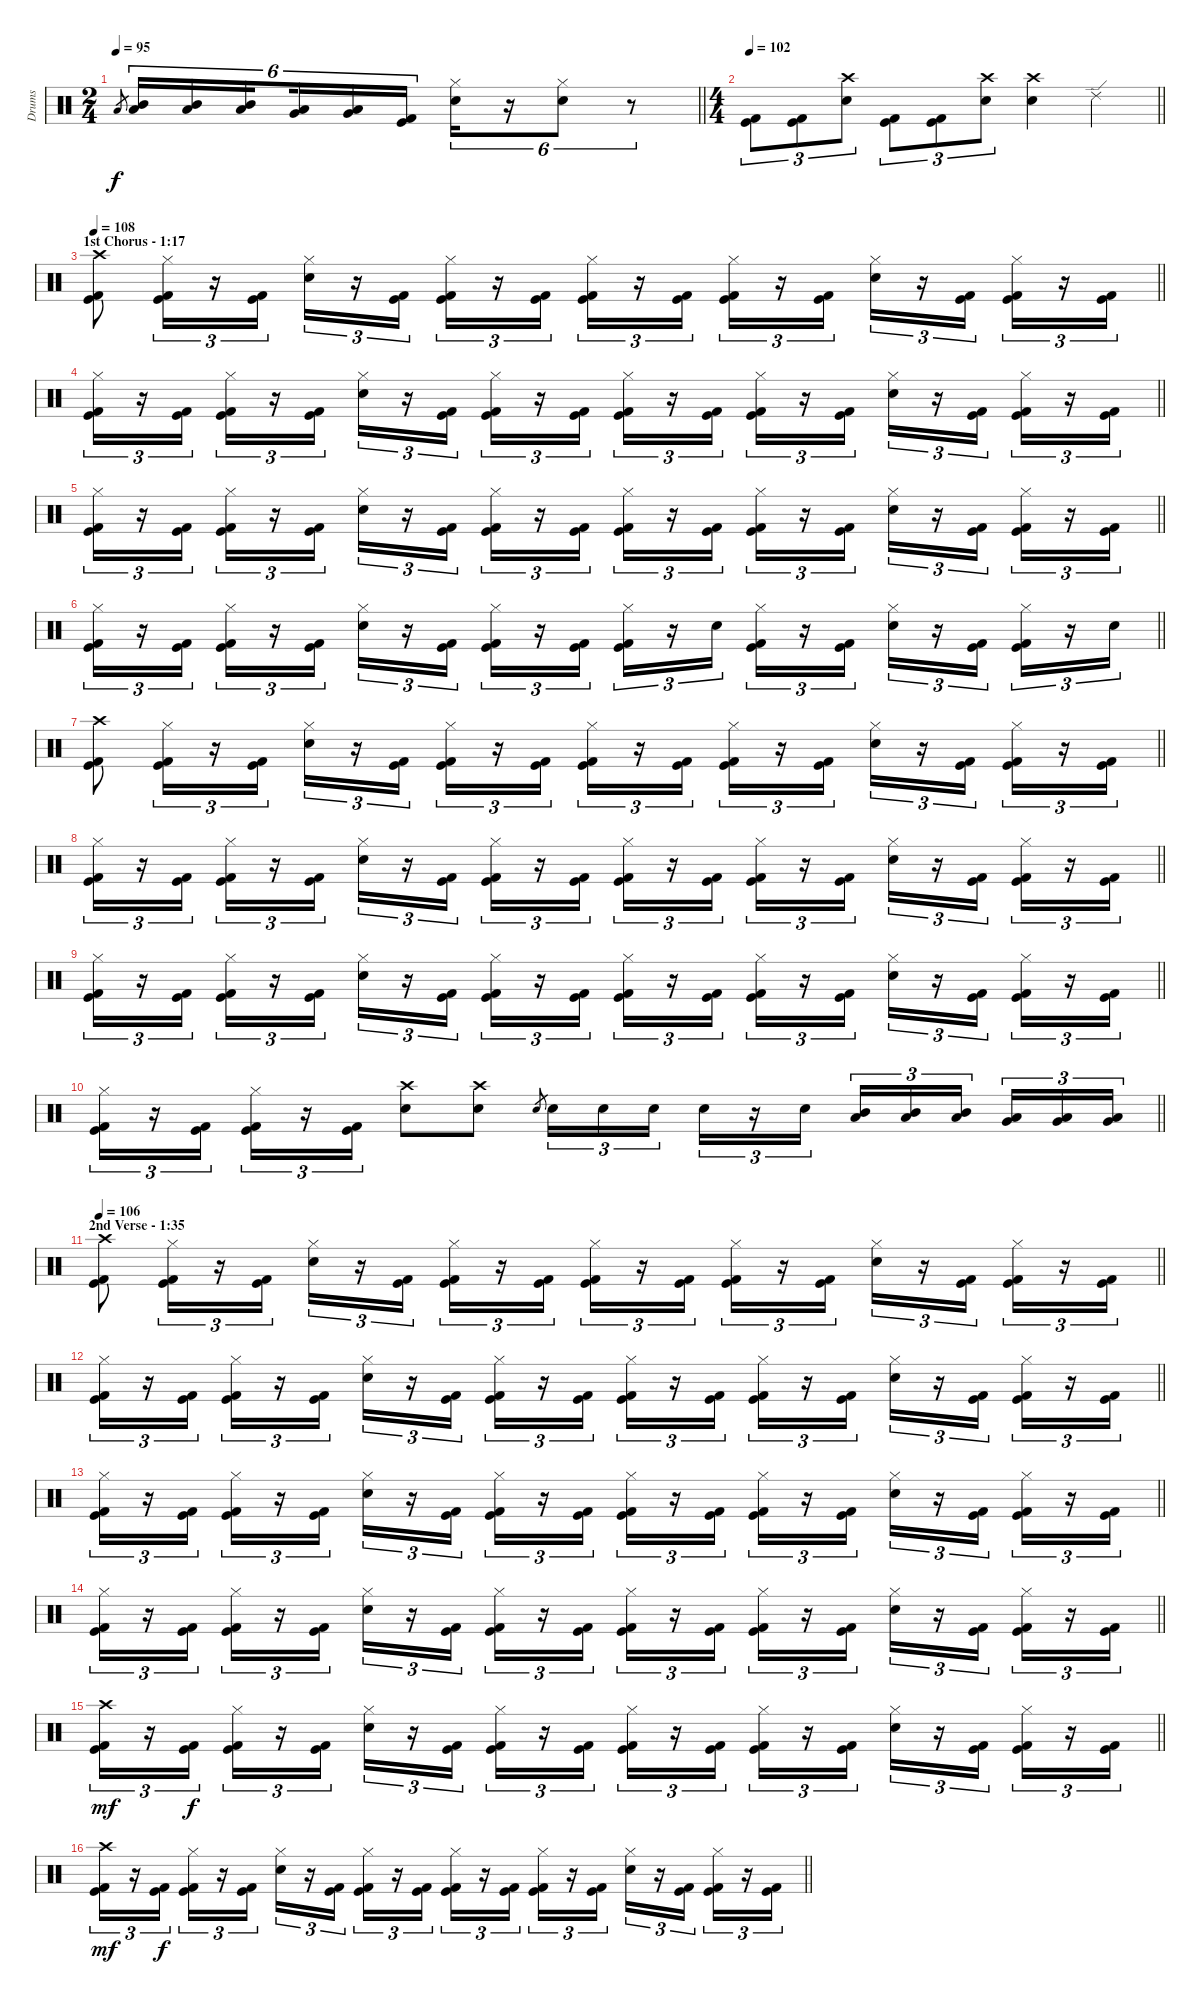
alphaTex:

\track ("Drums" "Drums") {instrument percussion}
\staff {score}
\articulation defaults
\ts (2 4)
\tempo 95
\clef neutral
\barLineRight lightlight
\ks c "Low Tom (hit)".8{gr dy f}
("Mid Tom (hit)" "Low Tom (hit)").16{tu (6 4)} ("Mid Tom (hit)" "Low Tom (hit)").16{tu (6 4)} ("Mid Tom (hit)" "Low Tom (hit)").16{tu (6 4) beam splitsecondary} ("Very Low Tom (hit)" "Low Tom (hit)").16{tu (6 4)} ("Very Low Tom (hit)" "Low Tom (hit)").16{tu (6 4)} ("Kick (hit)" "Kick (hit) 2").16{tu (6 4)} ("Hi-Hat (closed)" "Electric Snare (hit)").16{tu (6 4)} r.16{tu (6 4)} ("Hi-Hat (closed)" "Electric Snare (hit)").8{tu (6 4)} r.8{tu (6 4)} |
\ts (4 4)
\tempo 102
\barLineRight lightlight
("Kick (hit)" "Kick (hit) 2").8{tu (3 2)} ("Kick (hit)" "Kick (hit) 2").8{tu (3 2)} ("Crash high (hit)" "Electric Snare (hit)").8{tu (3 2)} ("Kick (hit)" "Kick (hit) 2").8{tu (3 2)} ("Kick (hit)" "Kick (hit) 2").8{tu (3 2)} ("Crash high (hit)" "Electric Snare (hit)").8{tu (3 2)} ("Crash high (hit)" "Electric Snare (hit)").4 "Ride (edge) 2".4 |
\section ("" "1st Chorus - 1:17")
\tempo 108
\barLineRight lightlight
("Crash high (hit)" "Kick (hit)" "Kick (hit) 2").8 ("Hi-Hat (closed)" "Kick (hit)" "Kick (hit) 2").16{tu (3 2)} r.16{tu (3 2)} ("Kick (hit)" "Kick (hit) 2").16{tu (3 2)} ("Hi-Hat (closed)" "Electric Snare (hit)").16{tu (3 2)} r.16{tu (3 2)} ("Kick (hit)" "Kick (hit) 2").16{tu (3 2)} ("Hi-Hat (closed)" "Kick (hit)" "Kick (hit) 2").16{tu (3 2)} r.16{tu (3 2)} ("Kick (hit)" "Kick (hit) 2").16{tu (3 2)} ("Hi-Hat (closed)" "Kick (hit)" "Kick (hit) 2").16{tu (3 2)} r.16{tu (3 2)} ("Kick (hit)" "Kick (hit) 2").16{tu (3 2)} ("Hi-Hat (closed)" "Kick (hit)" "Kick (hit) 2").16{tu (3 2)} r.16{tu (3 2)} ("Kick (hit)" "Kick (hit) 2").16{tu (3 2)} ("Hi-Hat (closed)" "Electric Snare (hit)").16{tu (3 2)} r.16{tu (3 2)} ("Kick (hit)" "Kick (hit) 2").16{tu (3 2)} ("Hi-Hat (closed)" "Kick (hit)" "Kick (hit) 2").16{tu (3 2)} r.16{tu (3 2)} ("Kick (hit)" "Kick (hit) 2").16{tu (3 2)} |
\barLineRight lightlight
("Hi-Hat (closed)" "Kick (hit)" "Kick (hit) 2").16{tu (3 2)} r.16{tu (3 2)} ("Kick (hit)" "Kick (hit) 2").16{tu (3 2)} ("Hi-Hat (closed)" "Kick (hit)" "Kick (hit) 2").16{tu (3 2)} r.16{tu (3 2)} ("Kick (hit)" "Kick (hit) 2").16{tu (3 2)} ("Hi-Hat (closed)" "Electric Snare (hit)").16{tu (3 2)} r.16{tu (3 2)} ("Kick (hit)" "Kick (hit) 2").16{tu (3 2)} ("Hi-Hat (closed)" "Kick (hit)" "Kick (hit) 2").16{tu (3 2)} r.16{tu (3 2)} ("Kick (hit)" "Kick (hit) 2").16{tu (3 2)} ("Hi-Hat (closed)" "Kick (hit)" "Kick (hit) 2").16{tu (3 2)} r.16{tu (3 2)} ("Kick (hit)" "Kick (hit) 2").16{tu (3 2)} ("Hi-Hat (closed)" "Kick (hit)" "Kick (hit) 2").16{tu (3 2)} r.16{tu (3 2)} ("Kick (hit)" "Kick (hit) 2").16{tu (3 2)} ("Hi-Hat (closed)" "Electric Snare (hit)").16{tu (3 2)} r.16{tu (3 2)} ("Kick (hit)" "Kick (hit) 2").16{tu (3 2)} ("Hi-Hat (closed)" "Kick (hit)" "Kick (hit) 2").16{tu (3 2)} r.16{tu (3 2)} ("Kick (hit)" "Kick (hit) 2").16{tu (3 2)} |
\barLineRight lightlight
("Hi-Hat (closed)" "Kick (hit)" "Kick (hit) 2").16{tu (3 2)} r.16{tu (3 2)} ("Kick (hit)" "Kick (hit) 2").16{tu (3 2)} ("Hi-Hat (closed)" "Kick (hit)" "Kick (hit) 2").16{tu (3 2)} r.16{tu (3 2)} ("Kick (hit)" "Kick (hit) 2").16{tu (3 2)} ("Hi-Hat (closed)" "Electric Snare (hit)").16{tu (3 2)} r.16{tu (3 2)} ("Kick (hit)" "Kick (hit) 2").16{tu (3 2)} ("Hi-Hat (closed)" "Kick (hit)" "Kick (hit) 2").16{tu (3 2)} r.16{tu (3 2)} ("Kick (hit)" "Kick (hit) 2").16{tu (3 2)} ("Hi-Hat (closed)" "Kick (hit)" "Kick (hit) 2").16{tu (3 2)} r.16{tu (3 2)} ("Kick (hit)" "Kick (hit) 2").16{tu (3 2)} ("Hi-Hat (closed)" "Kick (hit)" "Kick (hit) 2").16{tu (3 2)} r.16{tu (3 2)} ("Kick (hit)" "Kick (hit) 2").16{tu (3 2)} ("Hi-Hat (closed)" "Electric Snare (hit)").16{tu (3 2)} r.16{tu (3 2)} ("Kick (hit)" "Kick (hit) 2").16{tu (3 2)} ("Hi-Hat (closed)" "Kick (hit)" "Kick (hit) 2").16{tu (3 2)} r.16{tu (3 2)} ("Kick (hit)" "Kick (hit) 2").16{tu (3 2)} |
\barLineRight lightlight
("Hi-Hat (closed)" "Kick (hit)" "Kick (hit) 2").16{tu (3 2)} r.16{tu (3 2)} ("Kick (hit)" "Kick (hit) 2").16{tu (3 2)} ("Hi-Hat (closed)" "Kick (hit)" "Kick (hit) 2").16{tu (3 2)} r.16{tu (3 2)} ("Kick (hit)" "Kick (hit) 2").16{tu (3 2)} ("Hi-Hat (closed)" "Electric Snare (hit)").16{tu (3 2)} r.16{tu (3 2)} ("Kick (hit)" "Kick (hit) 2").16{tu (3 2)} ("Hi-Hat (closed)" "Kick (hit)" "Kick (hit) 2").16{tu (3 2)} r.16{tu (3 2)} ("Kick (hit)" "Kick (hit) 2").16{tu (3 2)} ("Hi-Hat (closed)" "Kick (hit)" "Kick (hit) 2").16{tu (3 2)} r.16{tu (3 2)} "Electric Snare (hit)".16{tu (3 2)} ("Hi-Hat (closed)" "Kick (hit)" "Kick (hit) 2").16{tu (3 2)} r.16{tu (3 2)} ("Kick (hit)" "Kick (hit) 2").16{tu (3 2)} ("Hi-Hat (closed)" "Electric Snare (hit)").16{tu (3 2)} r.16{tu (3 2)} ("Kick (hit)" "Kick (hit) 2").16{tu (3 2)} ("Hi-Hat (closed)" "Kick (hit)" "Kick (hit) 2").16{tu (3 2)} r.16{tu (3 2)} "Electric Snare (hit)".16{tu (3 2)} |
\barLineRight lightlight
("Crash high (hit)" "Kick (hit)" "Kick (hit) 2").8 ("Hi-Hat (closed)" "Kick (hit)" "Kick (hit) 2").16{tu (3 2)} r.16{tu (3 2)} ("Kick (hit)" "Kick (hit) 2").16{tu (3 2)} ("Hi-Hat (closed)" "Electric Snare (hit)").16{tu (3 2)} r.16{tu (3 2)} ("Kick (hit)" "Kick (hit) 2").16{tu (3 2)} ("Hi-Hat (closed)" "Kick (hit)" "Kick (hit) 2").16{tu (3 2)} r.16{tu (3 2)} ("Kick (hit)" "Kick (hit) 2").16{tu (3 2)} ("Hi-Hat (closed)" "Kick (hit)" "Kick (hit) 2").16{tu (3 2)} r.16{tu (3 2)} ("Kick (hit)" "Kick (hit) 2").16{tu (3 2)} ("Hi-Hat (closed)" "Kick (hit)" "Kick (hit) 2").16{tu (3 2)} r.16{tu (3 2)} ("Kick (hit)" "Kick (hit) 2").16{tu (3 2)} ("Hi-Hat (closed)" "Electric Snare (hit)").16{tu (3 2)} r.16{tu (3 2)} ("Kick (hit)" "Kick (hit) 2").16{tu (3 2)} ("Hi-Hat (closed)" "Kick (hit)" "Kick (hit) 2").16{tu (3 2)} r.16{tu (3 2)} ("Kick (hit)" "Kick (hit) 2").16{tu (3 2)} |
\barLineRight lightlight
("Hi-Hat (closed)" "Kick (hit)" "Kick (hit) 2").16{tu (3 2)} r.16{tu (3 2)} ("Kick (hit)" "Kick (hit) 2").16{tu (3 2)} ("Hi-Hat (closed)" "Kick (hit)" "Kick (hit) 2").16{tu (3 2)} r.16{tu (3 2)} ("Kick (hit)" "Kick (hit) 2").16{tu (3 2)} ("Hi-Hat (closed)" "Electric Snare (hit)").16{tu (3 2)} r.16{tu (3 2)} ("Kick (hit)" "Kick (hit) 2").16{tu (3 2)} ("Hi-Hat (closed)" "Kick (hit)" "Kick (hit) 2").16{tu (3 2)} r.16{tu (3 2)} ("Kick (hit)" "Kick (hit) 2").16{tu (3 2)} ("Hi-Hat (closed)" "Kick (hit)" "Kick (hit) 2").16{tu (3 2)} r.16{tu (3 2)} ("Kick (hit)" "Kick (hit) 2").16{tu (3 2)} ("Hi-Hat (closed)" "Kick (hit)" "Kick (hit) 2").16{tu (3 2)} r.16{tu (3 2)} ("Kick (hit)" "Kick (hit) 2").16{tu (3 2)} ("Hi-Hat (closed)" "Electric Snare (hit)").16{tu (3 2)} r.16{tu (3 2)} ("Kick (hit)" "Kick (hit) 2").16{tu (3 2)} ("Hi-Hat (closed)" "Kick (hit)" "Kick (hit) 2").16{tu (3 2)} r.16{tu (3 2)} ("Kick (hit)" "Kick (hit) 2").16{tu (3 2)} |
\barLineRight lightlight
("Hi-Hat (closed)" "Kick (hit)" "Kick (hit) 2").16{tu (3 2)} r.16{tu (3 2)} ("Kick (hit)" "Kick (hit) 2").16{tu (3 2)} ("Hi-Hat (closed)" "Kick (hit)" "Kick (hit) 2").16{tu (3 2)} r.16{tu (3 2)} ("Kick (hit)" "Kick (hit) 2").16{tu (3 2)} ("Hi-Hat (closed)" "Electric Snare (hit)").16{tu (3 2)} r.16{tu (3 2)} ("Kick (hit)" "Kick (hit) 2").16{tu (3 2)} ("Hi-Hat (closed)" "Kick (hit)" "Kick (hit) 2").16{tu (3 2)} r.16{tu (3 2)} ("Kick (hit)" "Kick (hit) 2").16{tu (3 2)} ("Hi-Hat (closed)" "Kick (hit)" "Kick (hit) 2").16{tu (3 2)} r.16{tu (3 2)} ("Kick (hit)" "Kick (hit) 2").16{tu (3 2)} ("Hi-Hat (closed)" "Kick (hit)" "Kick (hit) 2").16{tu (3 2)} r.16{tu (3 2)} ("Kick (hit)" "Kick (hit) 2").16{tu (3 2)} ("Hi-Hat (closed)" "Electric Snare (hit)").16{tu (3 2)} r.16{tu (3 2)} ("Kick (hit)" "Kick (hit) 2").16{tu (3 2)} ("Hi-Hat (closed)" "Kick (hit)" "Kick (hit) 2").16{tu (3 2)} r.16{tu (3 2)} ("Kick (hit)" "Kick (hit) 2").16{tu (3 2)} |
\barLineRight lightlight
("Hi-Hat (closed)" "Kick (hit)" "Kick (hit) 2").16{tu (3 2)} r.16{tu (3 2)} ("Kick (hit)" "Kick (hit) 2").16{tu (3 2)} ("Hi-Hat (closed)" "Kick (hit)" "Kick (hit) 2").16{tu (3 2)} r.16{tu (3 2)} ("Kick (hit)" "Kick (hit) 2").16{tu (3 2)} ("Crash high (hit)" "Electric Snare (hit)").8 ("Crash high (hit)" "Electric Snare (hit)").8 "Electric Snare (hit)".8{gr} "Electric Snare (hit)".16{tu (3 2)} "Electric Snare (hit)".16{tu (3 2)} "Electric Snare (hit)".16{tu (3 2) beam splitsecondary} "Electric Snare (hit)".16{tu (3 2)} r.16{tu (3 2)} "Electric Snare (hit)".16{tu (3 2)} ("Mid Tom (hit)" "Low Tom (hit)").16{tu (3 2)} ("Mid Tom (hit)" "Low Tom (hit)").16{tu (3 2)} ("Mid Tom (hit)" "Low Tom (hit)").16{tu (3 2) beam splitsecondary} ("Very Low Tom (hit)" "Low Tom (hit)").16{tu (3 2)} ("Very Low Tom (hit)" "Low Tom (hit)").16{tu (3 2)} ("Very Low Tom (hit)" "Low Tom (hit)").16{tu (3 2)} |
\section ("" "2nd Verse - 1:35")
\tempo 106
\barLineRight lightlight
("Crash high (hit)" "Kick (hit)" "Kick (hit) 2").8 ("Hi-Hat (closed)" "Kick (hit)" "Kick (hit) 2").16{tu (3 2)} r.16{tu (3 2)} ("Kick (hit)" "Kick (hit) 2").16{tu (3 2)} ("Hi-Hat (closed)" "Electric Snare (hit)").16{tu (3 2)} r.16{tu (3 2)} ("Kick (hit)" "Kick (hit) 2").16{tu (3 2)} ("Hi-Hat (closed)" "Kick (hit)" "Kick (hit) 2").16{tu (3 2)} r.16{tu (3 2)} ("Kick (hit)" "Kick (hit) 2").16{tu (3 2)} ("Hi-Hat (closed)" "Kick (hit)" "Kick (hit) 2").16{tu (3 2)} r.16{tu (3 2)} ("Kick (hit)" "Kick (hit) 2").16{tu (3 2)} ("Hi-Hat (closed)" "Kick (hit)" "Kick (hit) 2").16{tu (3 2)} r.16{tu (3 2)} ("Kick (hit)" "Kick (hit) 2").16{tu (3 2)} ("Hi-Hat (closed)" "Electric Snare (hit)").16{tu (3 2)} r.16{tu (3 2)} ("Kick (hit)" "Kick (hit) 2").16{tu (3 2)} ("Hi-Hat (closed)" "Kick (hit)" "Kick (hit) 2").16{tu (3 2)} r.16{tu (3 2)} ("Kick (hit)" "Kick (hit) 2").16{tu (3 2)} |
\barLineRight lightlight
("Hi-Hat (closed)" "Kick (hit)" "Kick (hit) 2").16{tu (3 2)} r.16{tu (3 2)} ("Kick (hit)" "Kick (hit) 2").16{tu (3 2)} ("Hi-Hat (closed)" "Kick (hit)" "Kick (hit) 2").16{tu (3 2)} r.16{tu (3 2)} ("Kick (hit)" "Kick (hit) 2").16{tu (3 2)} ("Hi-Hat (closed)" "Electric Snare (hit)").16{tu (3 2)} r.16{tu (3 2)} ("Kick (hit)" "Kick (hit) 2").16{tu (3 2)} ("Hi-Hat (closed)" "Kick (hit)" "Kick (hit) 2").16{tu (3 2)} r.16{tu (3 2)} ("Kick (hit)" "Kick (hit) 2").16{tu (3 2)} ("Hi-Hat (closed)" "Kick (hit)" "Kick (hit) 2").16{tu (3 2)} r.16{tu (3 2)} ("Kick (hit)" "Kick (hit) 2").16{tu (3 2)} ("Hi-Hat (closed)" "Kick (hit)" "Kick (hit) 2").16{tu (3 2)} r.16{tu (3 2)} ("Kick (hit)" "Kick (hit) 2").16{tu (3 2)} ("Hi-Hat (closed)" "Electric Snare (hit)").16{tu (3 2)} r.16{tu (3 2)} ("Kick (hit)" "Kick (hit) 2").16{tu (3 2)} ("Hi-Hat (closed)" "Kick (hit)" "Kick (hit) 2").16{tu (3 2)} r.16{tu (3 2)} ("Kick (hit)" "Kick (hit) 2").16{tu (3 2)} |
\barLineRight lightlight
("Hi-Hat (closed)" "Kick (hit)" "Kick (hit) 2").16{tu (3 2)} r.16{tu (3 2)} ("Kick (hit)" "Kick (hit) 2").16{tu (3 2)} ("Hi-Hat (closed)" "Kick (hit)" "Kick (hit) 2").16{tu (3 2)} r.16{tu (3 2)} ("Kick (hit)" "Kick (hit) 2").16{tu (3 2)} ("Hi-Hat (closed)" "Electric Snare (hit)").16{tu (3 2)} r.16{tu (3 2)} ("Kick (hit)" "Kick (hit) 2").16{tu (3 2)} ("Hi-Hat (closed)" "Kick (hit)" "Kick (hit) 2").16{tu (3 2)} r.16{tu (3 2)} ("Kick (hit)" "Kick (hit) 2").16{tu (3 2)} ("Hi-Hat (closed)" "Kick (hit)" "Kick (hit) 2").16{tu (3 2)} r.16{tu (3 2)} ("Kick (hit)" "Kick (hit) 2").16{tu (3 2)} ("Hi-Hat (closed)" "Kick (hit)" "Kick (hit) 2").16{tu (3 2)} r.16{tu (3 2)} ("Kick (hit)" "Kick (hit) 2").16{tu (3 2)} ("Hi-Hat (closed)" "Electric Snare (hit)").16{tu (3 2)} r.16{tu (3 2)} ("Kick (hit)" "Kick (hit) 2").16{tu (3 2)} ("Hi-Hat (closed)" "Kick (hit)" "Kick (hit) 2").16{tu (3 2)} r.16{tu (3 2)} ("Kick (hit)" "Kick (hit) 2").16{tu (3 2)} |
\barLineRight lightlight
("Hi-Hat (closed)" "Kick (hit)" "Kick (hit) 2").16{tu (3 2)} r.16{tu (3 2)} ("Kick (hit)" "Kick (hit) 2").16{tu (3 2)} ("Hi-Hat (closed)" "Kick (hit)" "Kick (hit) 2").16{tu (3 2)} r.16{tu (3 2)} ("Kick (hit)" "Kick (hit) 2").16{tu (3 2)} ("Hi-Hat (closed)" "Electric Snare (hit)").16{tu (3 2)} r.16{tu (3 2)} ("Kick (hit)" "Kick (hit) 2").16{tu (3 2)} ("Hi-Hat (closed)" "Kick (hit)" "Kick (hit) 2").16{tu (3 2)} r.16{tu (3 2)} ("Kick (hit)" "Kick (hit) 2").16{tu (3 2)} ("Hi-Hat (closed)" "Kick (hit)" "Kick (hit) 2").16{tu (3 2)} r.16{tu (3 2)} ("Kick (hit)" "Kick (hit) 2").16{tu (3 2)} ("Hi-Hat (closed)" "Kick (hit)" "Kick (hit) 2").16{tu (3 2)} r.16{tu (3 2)} ("Kick (hit)" "Kick (hit) 2").16{tu (3 2)} ("Hi-Hat (closed)" "Electric Snare (hit)").16{tu (3 2)} r.16{tu (3 2)} ("Kick (hit)" "Kick (hit) 2").16{tu (3 2)} ("Hi-Hat (closed)" "Kick (hit)" "Kick (hit) 2").16{tu (3 2)} r.16{tu (3 2)} ("Kick (hit)" "Kick (hit) 2").16{tu (3 2)} |
\barLineRight lightlight
("Crash high (hit)" "Kick (hit)" "Kick (hit) 2").16{tu (3 2) dy mf} r.16{tu (3 2)} ("Kick (hit)" "Kick (hit) 2").16{tu (3 2) dy f} ("Hi-Hat (closed)" "Kick (hit)" "Kick (hit) 2").16{tu (3 2)} r.16{tu (3 2)} ("Kick (hit)" "Kick (hit) 2").16{tu (3 2)} ("Hi-Hat (closed)" "Electric Snare (hit)").16{tu (3 2)} r.16{tu (3 2)} ("Kick (hit)" "Kick (hit) 2").16{tu (3 2)} ("Hi-Hat (closed)" "Kick (hit)" "Kick (hit) 2").16{tu (3 2)} r.16{tu (3 2)} ("Kick (hit)" "Kick (hit) 2").16{tu (3 2)} ("Hi-Hat (closed)" "Kick (hit)" "Kick (hit) 2").16{tu (3 2)} r.16{tu (3 2)} ("Kick (hit)" "Kick (hit) 2").16{tu (3 2)} ("Hi-Hat (closed)" "Kick (hit)" "Kick (hit) 2").16{tu (3 2)} r.16{tu (3 2)} ("Kick (hit)" "Kick (hit) 2").16{tu (3 2)} ("Hi-Hat (closed)" "Electric Snare (hit)").16{tu (3 2)} r.16{tu (3 2)} ("Kick (hit)" "Kick (hit) 2").16{tu (3 2)} ("Hi-Hat (closed)" "Kick (hit)" "Kick (hit) 2").16{tu (3 2)} r.16{tu (3 2)} ("Kick (hit)" "Kick (hit) 2").16{tu (3 2)} |
\barLineRight lightlight
("Crash high (hit)" "Kick (hit)" "Kick (hit) 2").16{tu (3 2) dy mf} r.16{tu (3 2)} ("Kick (hit)" "Kick (hit) 2").16{tu (3 2) dy f} ("Hi-Hat (closed)" "Kick (hit)" "Kick (hit) 2").16{tu (3 2)} r.16{tu (3 2)} ("Kick (hit)" "Kick (hit) 2").16{tu (3 2)} ("Hi-Hat (closed)" "Electric Snare (hit)").16{tu (3 2)} r.16{tu (3 2)} ("Kick (hit)" "Kick (hit) 2").16{tu (3 2)} ("Hi-Hat (closed)" "Kick (hit)" "Kick (hit) 2").16{tu (3 2)} r.16{tu (3 2)} ("Kick (hit)" "Kick (hit) 2").16{tu (3 2)} ("Hi-Hat (closed)" "Kick (hit)" "Kick (hit) 2").16{tu (3 2)} r.16{tu (3 2)} ("Kick (hit)" "Kick (hit) 2").16{tu (3 2)} ("Hi-Hat (closed)" "Kick (hit)" "Kick (hit) 2").16{tu (3 2)} r.16{tu (3 2)} ("Kick (hit)" "Kick (hit) 2").16{tu (3 2)} ("Hi-Hat (closed)" "Electric Snare (hit)").16{tu (3 2)} r.16{tu (3 2)} ("Kick (hit)" "Kick (hit) 2").16{tu (3 2)} ("Hi-Hat (closed)" "Kick (hit)" "Kick (hit) 2").16{tu (3 2)} r.16{tu (3 2)} ("Kick (hit)" "Kick (hit) 2").16{tu (3 2)}
